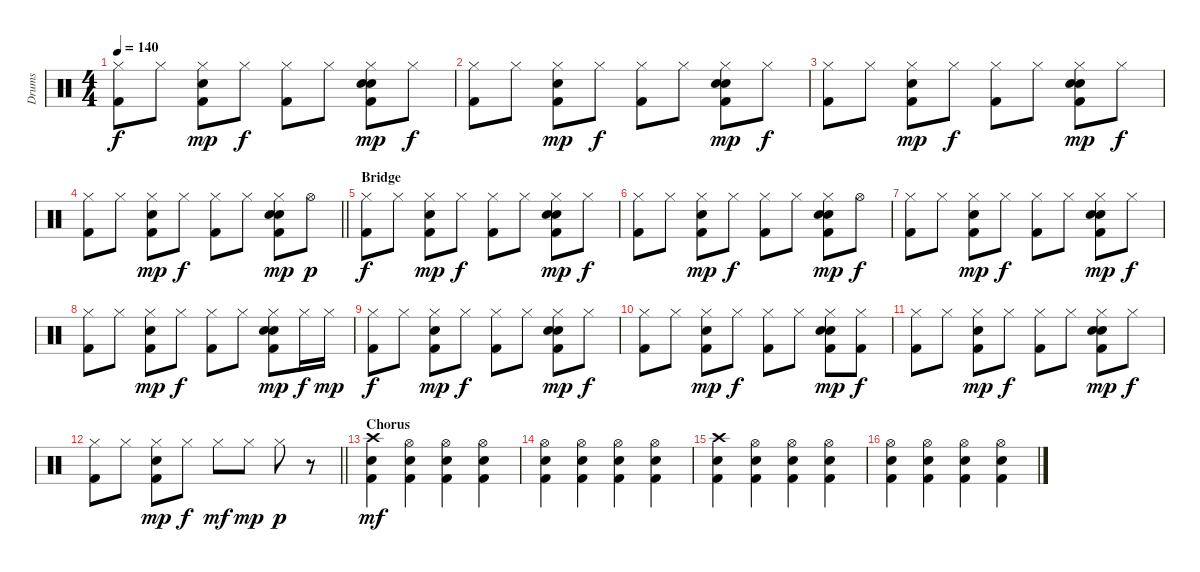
\track ("Drums" "Drums") {instrument percussion}
\staff {score}
\articulation defaults
\ts (4 4)
\tempo 140
\clef neutral
\ks c
("Hi-Hat (closed)" "Kick (hit) 2").8{dy f} "Hi-Hat (closed)".8 ("Hi-Hat (closed)" "Electric Snare (hit)" "Kick (hit) 2").8{dy mp} "Hi-Hat (closed)".8{dy f} ("Hi-Hat (closed)" "Kick (hit) 2").8 "Hi-Hat (closed)".8 ("Hi-Hat (closed)" "Hand Clap (hit)" "Electric Snare (hit)" "Kick (hit) 2").8{dy mp} "Hi-Hat (closed)".8{dy f} |
("Hi-Hat (closed)" "Kick (hit) 2").8 "Hi-Hat (closed)".8 ("Hi-Hat (closed)" "Electric Snare (hit)" "Kick (hit) 2").8{dy mp} "Hi-Hat (closed)".8{dy f} ("Hi-Hat (closed)" "Kick (hit) 2").8 "Hi-Hat (closed)".8 ("Hi-Hat (closed)" "Hand Clap (hit)" "Electric Snare (hit)" "Kick (hit) 2").8{dy mp} "Hi-Hat (closed)".8{dy f} |
("Hi-Hat (closed)" "Kick (hit) 2").8 "Hi-Hat (closed)".8 ("Hi-Hat (closed)" "Electric Snare (hit)" "Kick (hit) 2").8{dy mp} "Hi-Hat (closed)".8{dy f} ("Hi-Hat (closed)" "Kick (hit) 2").8 "Hi-Hat (closed)".8 ("Hi-Hat (closed)" "Hand Clap (hit)" "Electric Snare (hit)" "Kick (hit) 2").8{dy mp} "Hi-Hat (closed)".8{dy f} |
\barLineRight lightlight
("Hi-Hat (closed)" "Kick (hit) 2").8 "Hi-Hat (closed)".8 ("Hi-Hat (closed)" "Electric Snare (hit)" "Kick (hit) 2").8{dy mp} "Hi-Hat (closed)".8{dy f} ("Hi-Hat (closed)" "Kick (hit) 2").8 "Hi-Hat (closed)".8 ("Hi-Hat (closed)" "Hand Clap (hit)" "Electric Snare (hit)" "Kick (hit) 2").8{dy mp} "Hi-Hat (open)".8{dy p} |
\section ("" "Bridge")
("Hi-Hat (closed)" "Kick (hit) 2").8{dy f} "Hi-Hat (closed)".8 ("Hi-Hat (closed)" "Electric Snare (hit)" "Kick (hit) 2").8{dy mp} "Hi-Hat (closed)".8{dy f} ("Hi-Hat (closed)" "Kick (hit) 2").8 "Hi-Hat (closed)".8 ("Hi-Hat (closed)" "Hand Clap (hit)" "Electric Snare (hit)" "Kick (hit) 2").8{dy mp} "Hi-Hat (closed)".8{dy f} |
("Hi-Hat (closed)" "Kick (hit) 2").8 "Hi-Hat (closed)".8 ("Hi-Hat (closed)" "Electric Snare (hit)" "Kick (hit) 2").8{dy mp} "Hi-Hat (closed)".8{dy f} ("Hi-Hat (closed)" "Kick (hit) 2").8 "Hi-Hat (closed)".8 ("Hi-Hat (closed)" "Hand Clap (hit)" "Electric Snare (hit)" "Kick (hit) 2").8{dy mp} "Hi-Hat (open)".8{dy f} |
("Hi-Hat (closed)" "Kick (hit) 2").8 "Hi-Hat (closed)".8 ("Hi-Hat (closed)" "Electric Snare (hit)" "Kick (hit) 2").8{dy mp} "Hi-Hat (closed)".8{dy f} ("Hi-Hat (closed)" "Kick (hit) 2").8 "Hi-Hat (closed)".8 ("Hi-Hat (closed)" "Hand Clap (hit)" "Electric Snare (hit)" "Kick (hit) 2").8{dy mp} "Hi-Hat (closed)".8{dy f} |
("Hi-Hat (closed)" "Kick (hit) 2").8 "Hi-Hat (closed)".8 ("Hi-Hat (closed)" "Electric Snare (hit)" "Kick (hit) 2").8{dy mp} "Hi-Hat (closed)".8{dy f} ("Hi-Hat (closed)" "Kick (hit) 2").8 "Hi-Hat (closed)".8 ("Hi-Hat (closed)" "Hand Clap (hit)" "Electric Snare (hit)" "Kick (hit) 2").8{dy mp} "Hi-Hat (closed)".16{dy f} "Hi-Hat (closed)".16{dy mp} |
("Hi-Hat (closed)" "Kick (hit) 2").8{dy f} "Hi-Hat (closed)".8 ("Hi-Hat (closed)" "Electric Snare (hit)" "Kick (hit) 2").8{dy mp} "Hi-Hat (closed)".8{dy f} ("Hi-Hat (closed)" "Kick (hit) 2").8 "Hi-Hat (closed)".8 ("Hi-Hat (closed)" "Hand Clap (hit)" "Electric Snare (hit)" "Kick (hit) 2").8{dy mp} "Hi-Hat (closed)".8{dy f} |
("Hi-Hat (closed)" "Kick (hit) 2").8 "Hi-Hat (closed)".8 ("Hi-Hat (closed)" "Electric Snare (hit)" "Kick (hit) 2").8{dy mp} "Hi-Hat (closed)".8{dy f} ("Hi-Hat (closed)" "Kick (hit) 2").8 "Hi-Hat (closed)".8 ("Hi-Hat (closed)" "Hand Clap (hit)" "Electric Snare (hit)" "Kick (hit) 2").8{dy mp} ("Hi-Hat (closed)" "Kick (hit) 2").8{dy f} |
("Hi-Hat (closed)" "Kick (hit) 2").8 "Hi-Hat (closed)".8 ("Hi-Hat (closed)" "Electric Snare (hit)" "Kick (hit) 2").8{dy mp} "Hi-Hat (closed)".8{dy f} ("Hi-Hat (closed)" "Kick (hit) 2").8 "Hi-Hat (closed)".8 ("Hi-Hat (closed)" "Hand Clap (hit)" "Electric Snare (hit)" "Kick (hit) 2").8{dy mp} "Hi-Hat (closed)".8{dy f} |
\barLineRight lightlight
("Hi-Hat (closed)" "Kick (hit) 2").8 "Hi-Hat (closed)".8 ("Hi-Hat (closed)" "Electric Snare (hit)" "Kick (hit) 2").8{dy mp} "Hi-Hat (closed)".8{dy f} "Hi-Hat (closed)".8{dy mf} "Hi-Hat (closed)".8{dy mp} "Hi-Hat (closed)".8{dy p} r.8 |
\section ("" "Chorus")
("Crash high (hit)" "Electric Snare (hit)" "Kick (hit) 2").4{dy mf} ("Hi-Hat (open)" "Electric Snare (hit)" "Kick (hit) 2").4 ("Hi-Hat (open)" "Electric Snare (hit)" "Kick (hit) 2").4 ("Hi-Hat (open)" "Electric Snare (hit)" "Kick (hit) 2").4 |
("Hi-Hat (open)" "Electric Snare (hit)" "Kick (hit) 2").4 ("Hi-Hat (open)" "Electric Snare (hit)" "Kick (hit) 2").4 ("Hi-Hat (open)" "Electric Snare (hit)" "Kick (hit) 2").4 ("Hi-Hat (open)" "Electric Snare (hit)" "Kick (hit) 2").4 |
("Crash high (hit)" "Electric Snare (hit)" "Kick (hit) 2").4 ("Hi-Hat (open)" "Electric Snare (hit)" "Kick (hit) 2").4 ("Hi-Hat (open)" "Electric Snare (hit)" "Kick (hit) 2").4 ("Hi-Hat (open)" "Electric Snare (hit)" "Kick (hit) 2").4 |
("Hi-Hat (open)" "Electric Snare (hit)" "Kick (hit) 2").4 ("Hi-Hat (open)" "Electric Snare (hit)" "Kick (hit) 2").4 ("Hi-Hat (open)" "Electric Snare (hit)" "Kick (hit) 2").4 ("Hi-Hat (open)" "Electric Snare (hit)" "Kick (hit) 2").4
